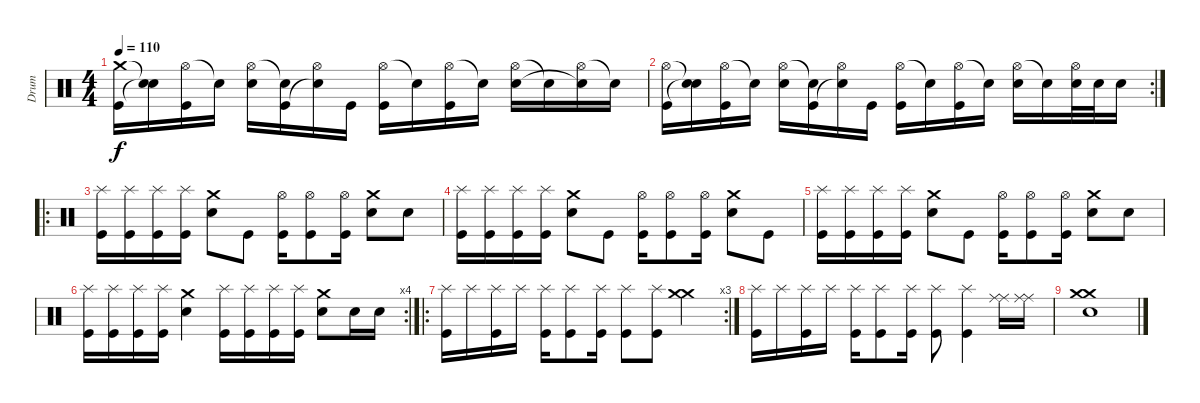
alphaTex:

\track ("Drum" "Drum") {instrument percussion}
\staff {score}
\articulation defaults
\ts (4 4)
\tempo 110
\clef neutral
\ks c
("Crash medium (hit)" "Kick (hit)").16{dy f} ("Snare (hit)"{t} "Snare (hit)"{t}).16 ("Hi-Hat (open)" "Kick (hit)").16 "Snare (hit)"{t}.16 ("Hi-Hat (open)" "Snare (hit) 2").16 ("Snare (hit)"{t} "Kick (hit)").16 ("Hi-Hat (open)" "Snare (hit)"{t}).16 "Kick (hit)".16 ("Hi-Hat (open)" "Kick (hit)").16 "Snare (hit)"{t}.16 ("Hi-Hat (open)" "Kick (hit)").16 "Snare (hit)"{t}.16 ("Hi-Hat (open)" "Snare (hit) 2").16 "Snare (hit)"{t}.16 ("Hi-Hat (open)" "Snare (hit)"{t}).16 "Snare (hit)"{t}.16 |
\rc 2
("Hi-Hat (open)" "Kick (hit)").16 ("Snare (hit)"{t} "Snare (hit)"{t}).16 ("Hi-Hat (open)" "Kick (hit)").16 "Snare (hit)"{t}.16 ("Hi-Hat (open)" "Snare (hit) 2").16 ("Snare (hit)"{t} "Kick (hit)").16 ("Hi-Hat (open)" "Snare (hit)"{t}).16 "Kick (hit)".16 ("Hi-Hat (open)" "Kick (hit)").16 "Snare (hit)"{t}.16 ("Hi-Hat (open)" "Kick (hit)").16 "Snare (hit)"{t}.16 ("Hi-Hat (open)" "Snare (hit) 2").16 "Snare (hit)"{t}.16 ("Hi-Hat (open)" "Snare (hit) 2").32 "Snare (hit) 2".32 "Snare (hit) 2".16 |
\ro
("Splash (hit)" "Kick (hit)").16 ("Splash (hit)" "Kick (hit)").16 ("Splash (hit)" "Kick (hit)").16 ("Splash (hit)" "Kick (hit)").16 ("Crash medium (hit)" "Snare (hit) 2").8 "Kick (hit)".8 ("Hi-Hat (open)" "Kick (hit)").16 ("Hi-Hat (open)" "Kick (hit)").8 ("Hi-Hat (open)" "Kick (hit)").16 ("Crash medium (hit)" "Snare (hit) 2").8 "Snare (hit) 2".8 |
("Splash (hit)" "Kick (hit)").16 ("Splash (hit)" "Kick (hit)").16 ("Splash (hit)" "Kick (hit)").16 ("Splash (hit)" "Kick (hit)").16 ("Crash medium (hit)" "Snare (hit) 2").8 "Kick (hit)".8 ("Hi-Hat (open)" "Kick (hit)").16 ("Hi-Hat (open)" "Kick (hit)").8 ("Hi-Hat (open)" "Kick (hit)").16 ("Crash medium (hit)" "Snare (hit) 2").8 "Kick (hit)".8 |
("Splash (hit)" "Kick (hit)").16 ("Splash (hit)" "Kick (hit)").16 ("Splash (hit)" "Kick (hit)").16 ("Splash (hit)" "Kick (hit)").16 ("Crash medium (hit)" "Snare (hit) 2").8 "Kick (hit)".8 ("Hi-Hat (open)" "Kick (hit)").16 ("Hi-Hat (open)" "Kick (hit)").8 ("Hi-Hat (open)" "Kick (hit)").16 ("Crash medium (hit)" "Snare (hit) 2").8 "Snare (hit) 2".8 |
\rc 4
("Splash (hit)" "Kick (hit)").16 ("Splash (hit)" "Kick (hit)").16 ("Splash (hit)" "Kick (hit)").16 ("Splash (hit)" "Kick (hit)").16 ("Crash medium (hit)" "Snare (hit) 2").4 ("Splash (hit)" "Kick (hit)").16 ("Splash (hit)" "Kick (hit)").16 ("Splash (hit)" "Kick (hit)").16 ("Splash (hit)" "Kick (hit)").16 ("Crash medium (hit)" "Snare (hit) 2").8 "Snare (hit) 2".16 "Snare (hit) 2".16 |
\ro
\rc 3
("Splash (hit)" "Kick (hit)").16 "Splash (hit)".16 ("Splash (hit)" "Kick (hit)").16 "Splash (hit)".16 ("Splash (hit)" "Kick (hit)").16 ("Splash (hit)" "Kick (hit)").8 ("Splash (hit)" "Kick (hit)").16 ("Splash (hit)" "Kick (hit)").8 ("Splash (hit)" "Kick (hit)").8 ("Crash medium (hit)" "Crash medium (hit)").4 |
("Splash (hit)" "Kick (hit)").16 "Splash (hit)".16 ("Splash (hit)" "Kick (hit)").16 "Splash (hit)".16 ("Splash (hit)" "Kick (hit)").16 ("Splash (hit)" "Kick (hit)").8 ("Splash (hit)" "Kick (hit)").16 ("Splash (hit)" "Kick (hit)").8 ("Splash (hit)" "Kick (hit)").4 ("Ride (middle)" "Ride (middle)").16 ("Ride (middle)" "Ride (middle)").16 |
("Crash medium (hit)" "Crash medium (hit)" "Snare (hit) 2").1
